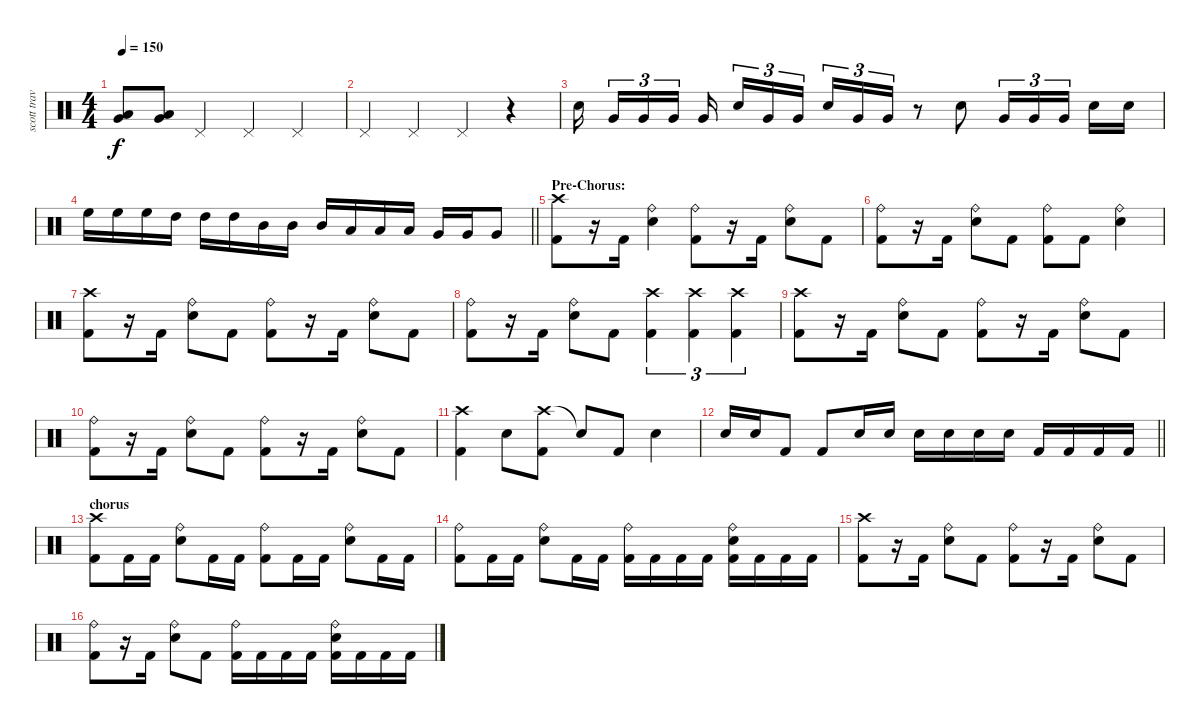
\track ("scott travis" "scott trav") {instrument percussion}
\staff {score}
\articulation defaults
\ts (4 4)
\tempo 150
\clef neutral
\ks c
("Low Tom (hit)" "Very Low Tom (hit)").8{dy f} ("Low Tom (hit)" "Very Low Tom (hit)").8 "Pedal Hi-Hat (hit)".4 "Pedal Hi-Hat (hit)".4 "Pedal Hi-Hat (hit)".4 |
"Pedal Hi-Hat (hit)".4 "Pedal Hi-Hat (hit)".4 "Pedal Hi-Hat (hit)".4 r.4 |
"Snare (hit) 2".16{beam splitsecondary} "Very Low Tom (hit)".16{tu (3 2)} "Very Low Tom (hit)".16{tu (3 2)} "Very Low Tom (hit)".16{tu (3 2) beam splitsecondary} "Very Low Tom (hit)".16 "Snare (hit) 2".16{tu (3 2)} "Very Low Tom (hit)".16{tu (3 2)} "Very Low Tom (hit)".16{tu (3 2) beam splitsecondary} "Snare (hit) 2".16{tu (3 2)} "Very Low Tom (hit)".16{tu (3 2)} "Very Low Tom (hit)".16{tu (3 2)} r.8 "Snare (hit) 2".8 "Very Low Tom (hit)".16{tu (3 2)} "Very Low Tom (hit)".16{tu (3 2)} "Very Low Tom (hit)".16{tu (3 2) beam splitsecondary} "Snare (hit) 2".16 "Snare (hit) 2".16 |
\barLineRight lightlight "High Floor Tom (hit)".16 "High Floor Tom (hit)".16 "High Floor Tom (hit)".16 "High Tom (hit)".16 "High Tom (hit)".16 "High Tom (hit)".16 "Mid Tom (hit)".16 "Mid Tom (hit)".16 "Mid Tom (hit)".16 "Low Tom (hit)".16 "Low Tom (hit)".16 "Low Tom (hit)".16 "Very Low Tom (hit)".16 "Very Low Tom (hit)".16 "Very Low Tom (hit)".8
|
\section ("" "Pre-Chorus:")
("Crash high (hit)" "Kick (hit) 2").8 r.16 "Kick (hit) 2".16 ("Ride (bell)" "Snare (hit) 2").4 ("Ride (bell)" "Kick (hit) 2").8 r.16 "Kick (hit) 2".16 ("Ride (bell)" "Snare (hit) 2").8 "Kick (hit) 2".8 |
("Ride (bell)" "Kick (hit) 2").8 r.16 "Kick (hit) 2".16 ("Ride (bell)" "Snare (hit) 2").8 "Kick (hit) 2".8 ("Ride (bell)" "Kick (hit) 2").8 "Kick (hit) 2".8 ("Ride (bell)" "Snare (hit) 2").4 |
("Crash high (hit)" "Kick (hit) 2").8 r.16 "Kick (hit) 2".16 ("Ride (bell)" "Snare (hit) 2").8 "Kick (hit) 2".8 ("Ride (bell)" "Kick (hit) 2").8 r.16 "Kick (hit) 2".16 ("Ride (bell)" "Snare (hit) 2").8 "Kick (hit) 2".8 |
("Ride (bell)" "Kick (hit) 2").8 r.16 "Kick (hit) 2".16 ("Ride (bell)" "Snare (hit) 2").8 "Kick (hit) 2".8 ("Crash high (hit)" "Kick (hit) 2").4{tu (3 2)} ("Crash high (hit)" "Kick (hit) 2").4{tu (3 2)} ("Crash high (hit)" "Kick (hit) 2").4{tu (3 2)} |
("Crash high (hit)" "Kick (hit) 2").8 r.16 "Kick (hit) 2".16 ("Ride (bell)" "Snare (hit) 2").8 "Kick (hit) 2".8 ("Ride (bell)" "Kick (hit) 2").8 r.16 "Kick (hit) 2".16 ("Ride (bell)" "Snare (hit) 2").8 "Kick (hit) 2".8 |
("Ride (bell)" "Kick (hit) 2").8 r.16 "Kick (hit) 2".16 ("Ride (bell)" "Snare (hit) 2").8 "Kick (hit) 2".8 ("Ride (bell)" "Kick (hit) 2").8 r.16 "Kick (hit) 2".16 ("Ride (bell)" "Snare (hit) 2").8 "Kick (hit) 2".8 |
("Crash high (hit)" "Kick (hit) 2").4 "Snare (hit) 2".8 ("Crash high (hit)" "Kick (hit) 2").8 "Snare (hit)"{t}.8 "Kick (hit) 2".8 "Snare (hit) 2".4 |
\barLineRight lightlight "Snare (hit) 2".16 "Snare (hit) 2".16 "Kick (hit) 2".8 "Kick (hit) 2".8 "Snare (hit) 2".16 "Snare (hit) 2".16 "Snare (hit) 2".16 "Snare (hit) 2".16 "Snare (hit) 2".16 "Snare (hit) 2".16 "Kick (hit) 2".16 "Kick (hit) 2".16 "Kick (hit) 2".16 "Kick (hit) 2".16
|
\section ("" "chorus")
("Crash high (hit)" "Kick (hit) 2").8 "Kick (hit) 2".16 "Kick (hit) 2".16 ("Ride (bell)" "Snare (hit) 2").8 "Kick (hit) 2".16 "Kick (hit) 2".16 ("Ride (bell)" "Kick (hit) 2").8 "Kick (hit) 2".16 "Kick (hit) 2".16 ("Ride (bell)" "Snare (hit) 2").8 "Kick (hit) 2".16 "Kick (hit) 2".16 |
("Ride (bell)" "Kick (hit) 2").8 "Kick (hit) 2".16 "Kick (hit) 2".16 ("Ride (bell)" "Snare (hit) 2").8 "Kick (hit) 2".16 "Kick (hit) 2".16 ("Ride (bell)" "Kick (hit) 2").16 "Kick (hit) 2".16 "Kick (hit) 2".16 "Kick (hit) 2".16 ("Ride (bell)" "Snare (hit) 2" "Kick (hit) 2").16 "Kick (hit) 2".16 "Kick (hit) 2".16 "Kick (hit) 2".16 |
("Crash high (hit)" "Kick (hit) 2").8 r.16 "Kick (hit) 2".16 ("Ride (bell)" "Snare (hit) 2").8 "Kick (hit) 2".8 ("Ride (bell)" "Kick (hit) 2").8 r.16 "Kick (hit) 2".16 ("Ride (bell)" "Snare (hit) 2").8 "Kick (hit) 2".8 |
("Ride (bell)" "Kick (hit) 2").8 r.16 "Kick (hit) 2".16 ("Ride (bell)" "Snare (hit) 2").8 "Kick (hit) 2".8 ("Ride (bell)" "Kick (hit) 2").16 "Kick (hit) 2".16 "Kick (hit) 2".16 "Kick (hit) 2".16 ("Ride (bell)" "Snare (hit) 2" "Kick (hit) 2").16 "Kick (hit) 2".16 "Kick (hit) 2".16 "Kick (hit) 2".16
